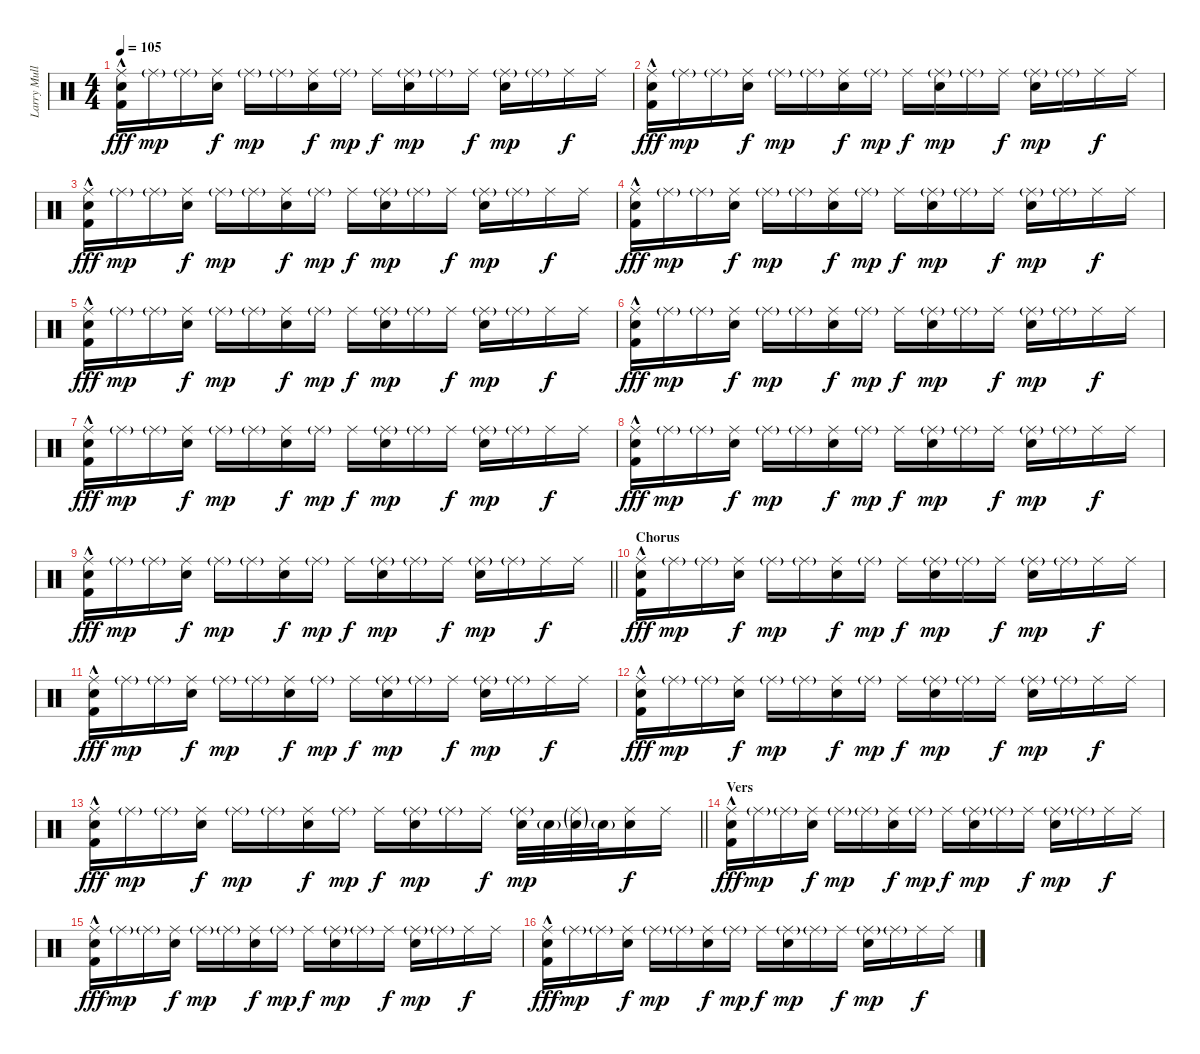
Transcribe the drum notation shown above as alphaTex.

\track ("Larry Mullen Jr." "Larry Mull") {instrument percussion}
\staff {score}
\articulation defaults
\ts (4 4)
\tempo 105
\clef neutral
\ks c
("Ride (middle)" "Electric Snare (hit)" "Kick (hit) 2"{hac}).16{dy fff} "Ride (middle)"{g}.16{dy mp} "Ride (middle)"{g}.16 ("Ride (middle)" "Electric Snare (hit)").16{dy f} "Ride (middle)"{g}.16{dy mp} "Ride (middle)"{g}.16 ("Ride (middle)" "Electric Snare (hit)").16{dy f} "Ride (middle)"{g}.16{dy mp} "Ride (middle)".16{dy f} ("Ride (middle)"{g} "Electric Snare (hit)").16{dy mp} "Ride (middle)"{g}.16 "Ride (middle)".16{dy f} ("Ride (middle)"{g} "Electric Snare (hit)").16{dy mp} "Ride (middle)"{g}.16 "Ride (middle)".16{dy f} "Ride (middle)".16 |
("Ride (middle)" "Electric Snare (hit)" "Kick (hit) 2"{hac}).16{dy fff} "Ride (middle)"{g}.16{dy mp} "Ride (middle)"{g}.16 ("Ride (middle)" "Electric Snare (hit)").16{dy f} "Ride (middle)"{g}.16{dy mp} "Ride (middle)"{g}.16 ("Ride (middle)" "Electric Snare (hit)").16{dy f} "Ride (middle)"{g}.16{dy mp} "Ride (middle)".16{dy f} ("Ride (middle)"{g} "Electric Snare (hit)").16{dy mp} "Ride (middle)"{g}.16 "Ride (middle)".16{dy f} ("Ride (middle)"{g} "Electric Snare (hit)").16{dy mp} "Ride (middle)"{g}.16 "Ride (middle)".16{dy f} "Ride (middle)".16 |
("Ride (middle)" "Electric Snare (hit)" "Kick (hit) 2"{hac}).16{dy fff} "Ride (middle)"{g}.16{dy mp} "Ride (middle)"{g}.16 ("Ride (middle)" "Electric Snare (hit)").16{dy f} "Ride (middle)"{g}.16{dy mp} "Ride (middle)"{g}.16 ("Ride (middle)" "Electric Snare (hit)").16{dy f} "Ride (middle)"{g}.16{dy mp} "Ride (middle)".16{dy f} ("Ride (middle)"{g} "Electric Snare (hit)").16{dy mp} "Ride (middle)"{g}.16 "Ride (middle)".16{dy f} ("Ride (middle)"{g} "Electric Snare (hit)").16{dy mp} "Ride (middle)"{g}.16 "Ride (middle)".16{dy f} "Ride (middle)".16 |
("Ride (middle)" "Electric Snare (hit)" "Kick (hit) 2"{hac}).16{dy fff} "Ride (middle)"{g}.16{dy mp} "Ride (middle)"{g}.16 ("Ride (middle)" "Electric Snare (hit)").16{dy f} "Ride (middle)"{g}.16{dy mp} "Ride (middle)"{g}.16 ("Ride (middle)" "Electric Snare (hit)").16{dy f} "Ride (middle)"{g}.16{dy mp} "Ride (middle)".16{dy f} ("Ride (middle)"{g} "Electric Snare (hit)").16{dy mp} "Ride (middle)"{g}.16 "Ride (middle)".16{dy f} ("Ride (middle)"{g} "Electric Snare (hit)").16{dy mp} "Ride (middle)"{g}.16 "Ride (middle)".16{dy f} "Ride (middle)".16 |
("Ride (middle)" "Electric Snare (hit)" "Kick (hit) 2"{hac}).16{dy fff} "Ride (middle)"{g}.16{dy mp} "Ride (middle)"{g}.16 ("Ride (middle)" "Electric Snare (hit)").16{dy f} "Ride (middle)"{g}.16{dy mp} "Ride (middle)"{g}.16 ("Ride (middle)" "Electric Snare (hit)").16{dy f} "Ride (middle)"{g}.16{dy mp} "Ride (middle)".16{dy f} ("Ride (middle)"{g} "Electric Snare (hit)").16{dy mp} "Ride (middle)"{g}.16 "Ride (middle)".16{dy f} ("Ride (middle)"{g} "Electric Snare (hit)").16{dy mp} "Ride (middle)"{g}.16 "Ride (middle)".16{dy f} "Ride (middle)".16 |
("Ride (middle)" "Electric Snare (hit)" "Kick (hit) 2"{hac}).16{dy fff} "Ride (middle)"{g}.16{dy mp} "Ride (middle)"{g}.16 ("Ride (middle)" "Electric Snare (hit)").16{dy f} "Ride (middle)"{g}.16{dy mp} "Ride (middle)"{g}.16 ("Ride (middle)" "Electric Snare (hit)").16{dy f} "Ride (middle)"{g}.16{dy mp} "Ride (middle)".16{dy f} ("Ride (middle)"{g} "Electric Snare (hit)").16{dy mp} "Ride (middle)"{g}.16 "Ride (middle)".16{dy f} ("Ride (middle)"{g} "Electric Snare (hit)").16{dy mp} "Ride (middle)"{g}.16 "Ride (middle)".16{dy f} "Ride (middle)".16 |
("Ride (middle)" "Electric Snare (hit)" "Kick (hit) 2"{hac}).16{dy fff} "Ride (middle)"{g}.16{dy mp} "Ride (middle)"{g}.16 ("Ride (middle)" "Electric Snare (hit)").16{dy f} "Ride (middle)"{g}.16{dy mp} "Ride (middle)"{g}.16 ("Ride (middle)" "Electric Snare (hit)").16{dy f} "Ride (middle)"{g}.16{dy mp} "Ride (middle)".16{dy f} ("Ride (middle)"{g} "Electric Snare (hit)").16{dy mp} "Ride (middle)"{g}.16 "Ride (middle)".16{dy f} ("Ride (middle)"{g} "Electric Snare (hit)").16{dy mp} "Ride (middle)"{g}.16 "Ride (middle)".16{dy f} "Ride (middle)".16 |
("Ride (middle)" "Electric Snare (hit)" "Kick (hit) 2"{hac}).16{dy fff} "Ride (middle)"{g}.16{dy mp} "Ride (middle)"{g}.16 ("Ride (middle)" "Electric Snare (hit)").16{dy f} "Ride (middle)"{g}.16{dy mp} "Ride (middle)"{g}.16 ("Ride (middle)" "Electric Snare (hit)").16{dy f} "Ride (middle)"{g}.16{dy mp} "Ride (middle)".16{dy f} ("Ride (middle)"{g} "Electric Snare (hit)").16{dy mp} "Ride (middle)"{g}.16 "Ride (middle)".16{dy f} ("Ride (middle)"{g} "Electric Snare (hit)").16{dy mp} "Ride (middle)"{g}.16 "Ride (middle)".16{dy f} "Ride (middle)".16 |
\barLineRight lightlight
("Ride (middle)" "Electric Snare (hit)" "Kick (hit) 2"{hac}).16{dy fff} "Ride (middle)"{g}.16{dy mp} "Ride (middle)"{g}.16 ("Ride (middle)" "Electric Snare (hit)").16{dy f} "Ride (middle)"{g}.16{dy mp} "Ride (middle)"{g}.16 ("Ride (middle)" "Electric Snare (hit)").16{dy f} "Ride (middle)"{g}.16{dy mp} "Ride (middle)".16{dy f} ("Ride (middle)"{g} "Electric Snare (hit)").16{dy mp} "Ride (middle)"{g}.16 "Ride (middle)".16{dy f} ("Ride (middle)"{g} "Electric Snare (hit)").16{dy mp} "Ride (middle)"{g}.16 "Ride (middle)".16{dy f} "Ride (middle)".16 |
\section ("" "Chorus")
("Ride (middle)" "Electric Snare (hit)" "Kick (hit) 2"{hac}).16{dy fff} "Ride (middle)"{g}.16{dy mp} "Ride (middle)"{g}.16 ("Ride (middle)" "Electric Snare (hit)").16{dy f} "Ride (middle)"{g}.16{dy mp} "Ride (middle)"{g}.16 ("Ride (middle)" "Electric Snare (hit)").16{dy f} "Ride (middle)"{g}.16{dy mp} "Ride (middle)".16{dy f} ("Ride (middle)"{g} "Electric Snare (hit)").16{dy mp} "Ride (middle)"{g}.16 "Ride (middle)".16{dy f} ("Ride (middle)"{g} "Electric Snare (hit)").16{dy mp} "Ride (middle)"{g}.16 "Ride (middle)".16{dy f} "Ride (middle)".16 |
("Ride (middle)" "Electric Snare (hit)" "Kick (hit) 2"{hac}).16{dy fff} "Ride (middle)"{g}.16{dy mp} "Ride (middle)"{g}.16 ("Ride (middle)" "Electric Snare (hit)").16{dy f} "Ride (middle)"{g}.16{dy mp} "Ride (middle)"{g}.16 ("Ride (middle)" "Electric Snare (hit)").16{dy f} "Ride (middle)"{g}.16{dy mp} "Ride (middle)".16{dy f} ("Ride (middle)"{g} "Electric Snare (hit)").16{dy mp} "Ride (middle)"{g}.16 "Ride (middle)".16{dy f} ("Ride (middle)"{g} "Electric Snare (hit)").16{dy mp} "Ride (middle)"{g}.16 "Ride (middle)".16{dy f} "Ride (middle)".16 |
("Ride (middle)" "Electric Snare (hit)" "Kick (hit) 2"{hac}).16{dy fff} "Ride (middle)"{g}.16{dy mp} "Ride (middle)"{g}.16 ("Ride (middle)" "Electric Snare (hit)").16{dy f} "Ride (middle)"{g}.16{dy mp} "Ride (middle)"{g}.16 ("Ride (middle)" "Electric Snare (hit)").16{dy f} "Ride (middle)"{g}.16{dy mp} "Ride (middle)".16{dy f} ("Ride (middle)"{g} "Electric Snare (hit)").16{dy mp} "Ride (middle)"{g}.16 "Ride (middle)".16{dy f} ("Ride (middle)"{g} "Electric Snare (hit)").16{dy mp} "Ride (middle)"{g}.16 "Ride (middle)".16{dy f} "Ride (middle)".16 |
\barLineRight lightlight
("Ride (middle)" "Electric Snare (hit)" "Kick (hit) 2"{hac}).16{dy fff} "Ride (middle)"{g}.16{dy mp} "Ride (middle)"{g}.16 ("Ride (middle)" "Electric Snare (hit)").16{dy f} "Ride (middle)"{g}.16{dy mp} "Ride (middle)"{g}.16 ("Ride (middle)" "Electric Snare (hit)").16{dy f} "Ride (middle)"{g}.16{dy mp} "Ride (middle)".16{dy f} ("Ride (middle)"{g} "Electric Snare (hit)").16{dy mp} "Ride (middle)"{g}.16 "Ride (middle)".16{dy f} ("Ride (middle)"{g} "Snare (hit) 2").32{dy mp} "Snare (hit) 2"{g}.32 ("Ride (middle)"{g} "Snare (hit) 2"{g}).32 "Snare (hit) 2"{g}.32 ("Ride (middle)" "Snare (hit) 2").16{dy f} "Ride (middle)".16 |
\section ("" "Vers")
("Ride (middle)" "Electric Snare (hit)" "Kick (hit) 2"{hac}).16{dy fff} "Ride (middle)"{g}.16{dy mp} "Ride (middle)"{g}.16 ("Ride (middle)" "Electric Snare (hit)").16{dy f} "Ride (middle)"{g}.16{dy mp} "Ride (middle)"{g}.16 ("Ride (middle)" "Electric Snare (hit)").16{dy f} "Ride (middle)"{g}.16{dy mp} "Ride (middle)".16{dy f} ("Ride (middle)"{g} "Electric Snare (hit)").16{dy mp} "Ride (middle)"{g}.16 "Ride (middle)".16{dy f} ("Ride (middle)"{g} "Electric Snare (hit)").16{dy mp} "Ride (middle)"{g}.16 "Ride (middle)".16{dy f} "Ride (middle)".16 |
("Ride (middle)" "Electric Snare (hit)" "Kick (hit) 2"{hac}).16{dy fff} "Ride (middle)"{g}.16{dy mp} "Ride (middle)"{g}.16 ("Ride (middle)" "Electric Snare (hit)").16{dy f} "Ride (middle)"{g}.16{dy mp} "Ride (middle)"{g}.16 ("Ride (middle)" "Electric Snare (hit)").16{dy f} "Ride (middle)"{g}.16{dy mp} "Ride (middle)".16{dy f} ("Ride (middle)"{g} "Electric Snare (hit)").16{dy mp} "Ride (middle)"{g}.16 "Ride (middle)".16{dy f} ("Ride (middle)"{g} "Electric Snare (hit)").16{dy mp} "Ride (middle)"{g}.16 "Ride (middle)".16{dy f} "Ride (middle)".16 |
("Ride (middle)" "Electric Snare (hit)" "Kick (hit) 2"{hac}).16{dy fff} "Ride (middle)"{g}.16{dy mp} "Ride (middle)"{g}.16 ("Ride (middle)" "Electric Snare (hit)").16{dy f} "Ride (middle)"{g}.16{dy mp} "Ride (middle)"{g}.16 ("Ride (middle)" "Electric Snare (hit)").16{dy f} "Ride (middle)"{g}.16{dy mp} "Ride (middle)".16{dy f} ("Ride (middle)"{g} "Electric Snare (hit)").16{dy mp} "Ride (middle)"{g}.16 "Ride (middle)".16{dy f} ("Ride (middle)"{g} "Electric Snare (hit)").16{dy mp} "Ride (middle)"{g}.16 "Ride (middle)".16{dy f} "Ride (middle)".16
